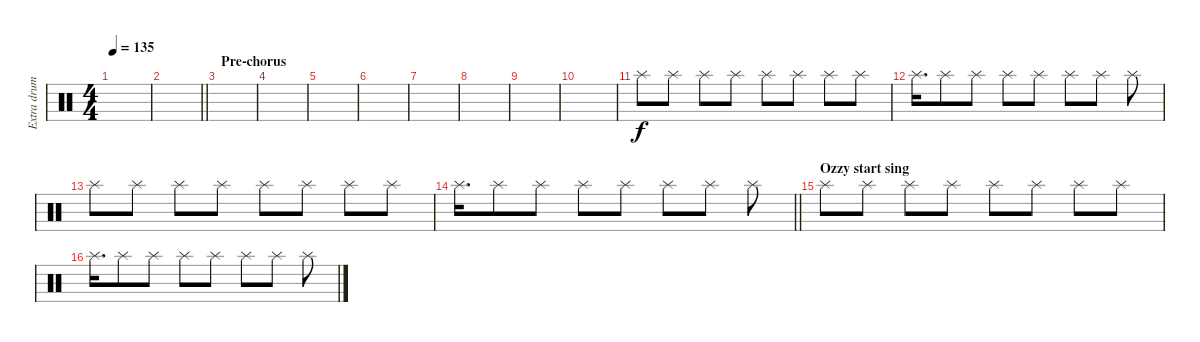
\track ("Extra drums" "Extra drum") {instrument percussion}
\staff {score}
\articulation defaults
\ts (4 4)
\tempo 135
\clef neutral
\ks c
|
\barLineRight lightlight
|
\section ("" "Pre-chorus")
|
|
|
|
|
|
|
|
"Splash (hit)".8 "Splash (hit)".8 "Splash (hit)".8 "Splash (hit)".8 "Splash (hit)".8 "Splash (hit)".8 "Splash (hit)".8 "Splash (hit)".8 |
"Splash (hit)".16{d} "Splash (hit)".8 "Splash (hit)".8 "Splash (hit)".8 "Splash (hit)".8 "Splash (hit)".8 "Splash (hit)".8 "Splash (hit)".8 |
"Splash (hit)".8 "Splash (hit)".8 "Splash (hit)".8 "Splash (hit)".8 "Splash (hit)".8 "Splash (hit)".8 "Splash (hit)".8 "Splash (hit)".8 |
\barLineRight lightlight "Splash (hit)".16{d} "Splash (hit)".8 "Splash (hit)".8 "Splash (hit)".8 "Splash (hit)".8 "Splash (hit)".8 "Splash (hit)".8 "Splash (hit)".8
|
\section ("" "Ozzy start sing")
"Splash (hit)".8 "Splash (hit)".8 "Splash (hit)".8 "Splash (hit)".8 "Splash (hit)".8 "Splash (hit)".8 "Splash (hit)".8 "Splash (hit)".8 |
"Splash (hit)".16{d} "Splash (hit)".8 "Splash (hit)".8 "Splash (hit)".8 "Splash (hit)".8 "Splash (hit)".8 "Splash (hit)".8 "Splash (hit)".8
